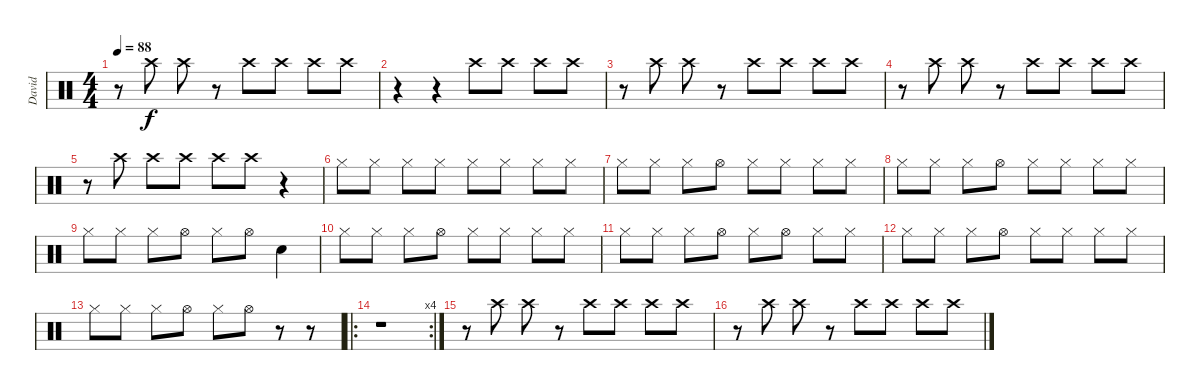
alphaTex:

\track ("David" "David") {instrument percussion}
\staff {score}
\articulation defaults
\ts (4 4)
\tempo 88
\clef neutral
\ks c
r.8{dy f} "Crash high (hit)".8 "Crash high (hit)".8 r.8 "Crash high (hit)".8 "Crash high (hit)".8 "Crash high (hit)".8 "Crash high (hit)".8 |
r.4 r.4 "Crash high (hit)".8 "Crash high (hit)".8 "Crash high (hit)".8 "Crash high (hit)".8 |
r.8 "Crash high (hit)".8 "Crash high (hit)".8 r.8 "Crash high (hit)".8 "Crash high (hit)".8 "Crash high (hit)".8 "Crash high (hit)".8 |
r.8 "Crash high (hit)".8 "Crash high (hit)".8 r.8 "Crash high (hit)".8 "Crash high (hit)".8 "Crash high (hit)".8 "Crash high (hit)".8 |
r.8 "Crash high (hit)".8 "Crash high (hit)".8 "Crash high (hit)".8 "Crash high (hit)".8 "Crash high (hit)".8 r.4 |
"Hi-Hat (closed)".8{volume 14} "Hi-Hat (closed)".8 "Hi-Hat (closed)".8 "Hi-Hat (closed)".8 "Hi-Hat (closed)".8 "Hi-Hat (closed)".8 "Hi-Hat (closed)".8 "Hi-Hat (closed)".8 |
"Hi-Hat (closed)".8 "Hi-Hat (closed)".8 "Hi-Hat (closed)".8 "Hi-Hat (open)".8 "Hi-Hat (closed)".8 "Hi-Hat (closed)".8 "Hi-Hat (closed)".8 "Hi-Hat (closed)".8 |
"Hi-Hat (closed)".8 "Hi-Hat (closed)".8 "Hi-Hat (closed)".8 "Hi-Hat (open)".8 "Hi-Hat (closed)".8 "Hi-Hat (closed)".8 "Hi-Hat (closed)".8 "Hi-Hat (closed)".8 |
"Hi-Hat (closed)".8 "Hi-Hat (closed)".8 "Hi-Hat (closed)".8 "Hi-Hat (open)".8 "Hi-Hat (closed)".8 "Hi-Hat (open)".8 "Snare (hit) 2".4 |
"Hi-Hat (closed)".8 "Hi-Hat (closed)".8 "Hi-Hat (closed)".8 "Hi-Hat (open)".8 "Hi-Hat (closed)".8 "Hi-Hat (closed)".8 "Hi-Hat (closed)".8 "Hi-Hat (closed)".8 |
"Hi-Hat (closed)".8 "Hi-Hat (closed)".8 "Hi-Hat (closed)".8 "Hi-Hat (open)".8 "Hi-Hat (closed)".8 "Hi-Hat (open)".8 "Hi-Hat (closed)".8 "Hi-Hat (closed)".8 |
"Hi-Hat (closed)".8 "Hi-Hat (closed)".8 "Hi-Hat (closed)".8 "Hi-Hat (open)".8 "Hi-Hat (closed)".8 "Hi-Hat (closed)".8 "Hi-Hat (closed)".8 "Hi-Hat (closed)".8 |
"Hi-Hat (closed)".8 "Hi-Hat (closed)".8 "Hi-Hat (closed)".8 "Hi-Hat (open)".8 "Hi-Hat (closed)".8 "Hi-Hat (open)".8 r.8 r.8 |
\ro
\rc 4
r.1 |
r.8{volume 16} "Crash high (hit)".8 "Crash high (hit)".8 r.8 "Crash high (hit)".8 "Crash high (hit)".8 "Crash high (hit)".8 "Crash high (hit)".8 |
r.8 "Crash high (hit)".8 "Crash high (hit)".8 r.8 "Crash high (hit)".8 "Crash high (hit)".8 "Crash high (hit)".8 "Crash high (hit)".8
